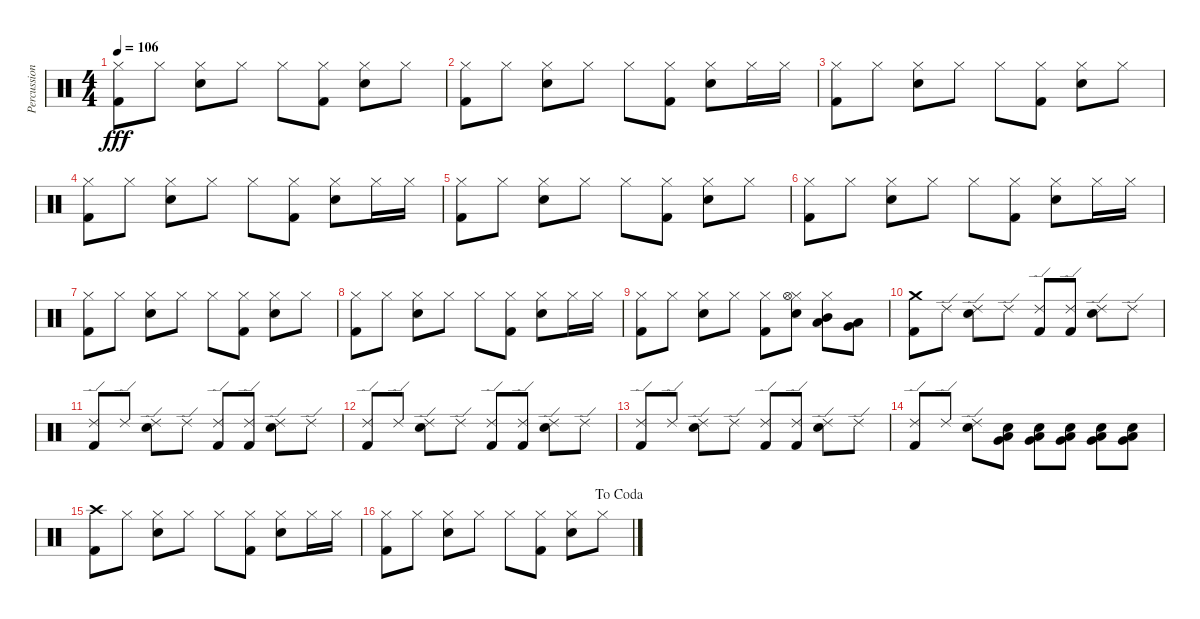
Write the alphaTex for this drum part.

\track ("Percussion" "Percussion") {instrument percussion}
\staff {score}
\articulation defaults
\ts (4 4)
\tempo 106
\clef neutral
\ks c
("Kick (hit) 2" "Hi-Hat (closed)").8{dy fff} "Hi-Hat (closed)".8 ("Snare (hit) 2" "Hi-Hat (closed)").8 "Hi-Hat (closed)".8 "Hi-Hat (closed)".8 ("Kick (hit) 2" "Hi-Hat (closed)").8 ("Snare (hit) 2" "Hi-Hat (closed)").8 "Hi-Hat (closed)".8 |
("Kick (hit) 2" "Hi-Hat (closed)").8 "Hi-Hat (closed)".8 ("Snare (hit) 2" "Hi-Hat (closed)").8 "Hi-Hat (closed)".8 "Hi-Hat (closed)".8 ("Kick (hit) 2" "Hi-Hat (closed)").8 ("Snare (hit) 2" "Hi-Hat (closed)").8 "Hi-Hat (closed)".16 "Hi-Hat (closed)".16 |
("Kick (hit) 2" "Hi-Hat (closed)").8 "Hi-Hat (closed)".8 ("Snare (hit) 2" "Hi-Hat (closed)").8 "Hi-Hat (closed)".8 "Hi-Hat (closed)".8 ("Kick (hit) 2" "Hi-Hat (closed)").8 ("Snare (hit) 2" "Hi-Hat (closed)").8 "Hi-Hat (closed)".8 |
("Kick (hit) 2" "Hi-Hat (closed)").8 "Hi-Hat (closed)".8 ("Snare (hit) 2" "Hi-Hat (closed)").8 "Hi-Hat (closed)".8 "Hi-Hat (closed)".8 ("Kick (hit) 2" "Hi-Hat (closed)").8 ("Snare (hit) 2" "Hi-Hat (closed)").8 "Hi-Hat (closed)".16 "Hi-Hat (closed)".16 |
("Kick (hit) 2" "Hi-Hat (closed)").8 "Hi-Hat (closed)".8 ("Snare (hit) 2" "Hi-Hat (closed)").8 "Hi-Hat (closed)".8 "Hi-Hat (closed)".8 ("Kick (hit) 2" "Hi-Hat (closed)").8 ("Snare (hit) 2" "Hi-Hat (closed)").8 "Hi-Hat (closed)".8 |
("Kick (hit) 2" "Hi-Hat (closed)").8 "Hi-Hat (closed)".8 ("Snare (hit) 2" "Hi-Hat (closed)").8 "Hi-Hat (closed)".8 "Hi-Hat (closed)".8 ("Kick (hit) 2" "Hi-Hat (closed)").8 ("Snare (hit) 2" "Hi-Hat (closed)").8 "Hi-Hat (closed)".16 "Hi-Hat (closed)".16 |
("Kick (hit) 2" "Hi-Hat (closed)").8 "Hi-Hat (closed)".8 ("Snare (hit) 2" "Hi-Hat (closed)").8 "Hi-Hat (closed)".8 "Hi-Hat (closed)".8 ("Kick (hit) 2" "Hi-Hat (closed)").8 ("Snare (hit) 2" "Hi-Hat (closed)").8 "Hi-Hat (closed)".8 |
("Kick (hit) 2" "Hi-Hat (closed)").8 "Hi-Hat (closed)".8 ("Snare (hit) 2" "Hi-Hat (closed)").8 "Hi-Hat (closed)".8 "Hi-Hat (closed)".8 ("Kick (hit) 2" "Hi-Hat (closed)").8 ("Snare (hit) 2" "Hi-Hat (closed)").8 "Hi-Hat (closed)".16 "Hi-Hat (closed)".16 |
("Kick (hit) 2" "Hi-Hat (closed)").8 "Hi-Hat (closed)".8 ("Snare (hit) 2" "Hi-Hat (closed)").8 "Hi-Hat (closed)".8 ("Hi-Hat (closed)" "Kick (hit) 2").8 ("Hi-Hat (closed)" "Snare (hit) 2" "Hi-Hat (open)").8 ("Low Tom (hit)" "Mid Tom (hit)" "Hi-Hat (closed)").8 ("Very Low Tom (hit)" "Low Tom (hit)").8 |
("Crash medium (hit)" "Kick (hit) 2").8 "Ride (edge) 2".8 ("Snare (hit) 2" "Ride (edge) 2").8 "Ride (edge) 2".8 ("Kick (hit) 2" "Ride (edge) 2").8 ("Kick (hit) 2" "Ride (edge) 2").8 ("Snare (hit) 2" "Ride (edge) 2").8 "Ride (edge) 2".8 |
("Kick (hit) 2" "Ride (edge) 2").8 "Ride (edge) 2".8 ("Snare (hit) 2" "Ride (edge) 2").8 "Ride (edge) 2".8 ("Kick (hit) 2" "Ride (edge) 2").8 ("Kick (hit) 2" "Ride (edge) 2").8 ("Snare (hit) 2" "Ride (edge) 2").8 "Ride (edge) 2".8 |
("Ride (edge) 2" "Kick (hit) 2").8 "Ride (edge) 2".8 ("Ride (edge) 2" "Snare (hit) 2").8 "Ride (edge) 2".8 ("Ride (edge) 2" "Kick (hit) 2").8 ("Ride (edge) 2" "Kick (hit) 2").8 ("Ride (edge) 2" "Snare (hit) 2").8 "Ride (edge) 2".8 |
("Ride (edge) 2" "Kick (hit) 2").8 "Ride (edge) 2".8 ("Ride (edge) 2" "Snare (hit) 2").8 "Ride (edge) 2".8 ("Ride (edge) 2" "Kick (hit) 2").8 ("Ride (edge) 2" "Kick (hit) 2").8 ("Ride (edge) 2" "Snare (hit) 2").8 "Ride (edge) 2".8 |
("Ride (edge) 2" "Kick (hit) 2").8 "Ride (edge) 2".8 ("Ride (edge) 2" "Snare (hit) 2").8 ("Snare (hit) 2" "Very Low Tom (hit)" "Low Floor Tom (hit)").8 ("Snare (hit) 2" "Very Low Tom (hit)" "Low Floor Tom (hit)").8 ("Snare (hit) 2" "Very Low Tom (hit)" "Low Floor Tom (hit)").8 ("Snare (hit) 2" "Very Low Tom (hit)" "Low Floor Tom (hit)").8 ("Snare (hit) 2" "Very Low Tom (hit)" "Low Floor Tom (hit)").8 |
("Kick (hit) 2" "Crash high (hit)").8 "Hi-Hat (closed)".8 ("Snare (hit) 2" "Hi-Hat (closed)").8 "Hi-Hat (closed)".8 "Hi-Hat (closed)".8 ("Kick (hit) 2" "Hi-Hat (closed)").8 ("Snare (hit) 2" "Hi-Hat (closed)").8 "Hi-Hat (closed)".16 "Hi-Hat (closed)".16 |
\jump dacoda
("Kick (hit) 2" "Hi-Hat (closed)").8 "Hi-Hat (closed)".8 ("Snare (hit) 2" "Hi-Hat (closed)").8 "Hi-Hat (closed)".8 "Hi-Hat (closed)".8 ("Kick (hit) 2" "Hi-Hat (closed)").8 ("Snare (hit) 2" "Hi-Hat (closed)").8 "Hi-Hat (closed)".8
